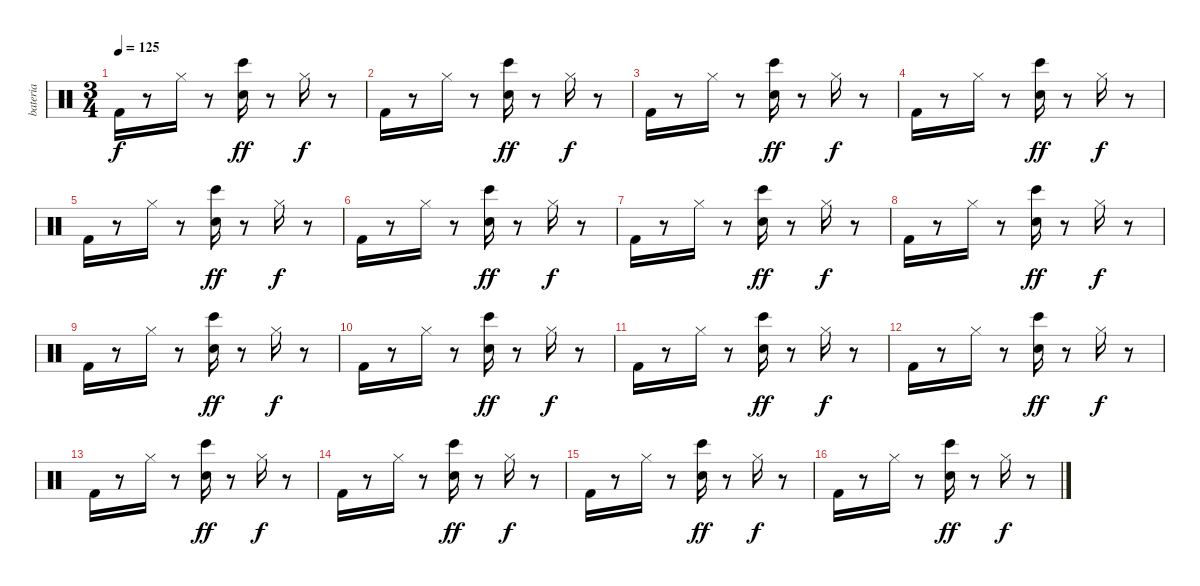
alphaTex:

\track ("bateria" "bateria") {instrument percussion}
\staff {score}
\articulation defaults
\ts (3 4)
\tempo 125
\clef neutral
\ks c "Kick (hit) 2".16{dy f}
r.8 "Hi-Hat (closed)".16 r.8 ("Snare (hit) 2" "Bongo High (hit)").16{dy ff volume 15 balance 8} r.8 "Hi-Hat (closed)".16{dy f} r.8 |
"Kick (hit) 2".16{volume 15 balance 8} r.8 "Hi-Hat (closed)".16 r.8 ("Bongo High (hit)" "Snare (hit) 2").16{dy ff} r.8 "Hi-Hat (closed)".16{dy f volume 15 balance 8} r.8 |
"Kick (hit) 2".16{volume 15 balance 8} r.8 "Hi-Hat (closed)".16 r.8 ("Bongo High (hit)" "Snare (hit) 2").16{dy ff} r.8 "Hi-Hat (closed)".16{dy f volume 15 balance 8} r.8 |
"Kick (hit) 2".16 r.8 "Hi-Hat (closed)".16 r.8 ("Snare (hit) 2" "Bongo High (hit)").16{dy ff volume 15 balance 8} r.8 "Hi-Hat (closed)".16{dy f} r.8 |
"Kick (hit) 2".16{volume 15 balance 8} r.8 "Hi-Hat (closed)".16 r.8 ("Bongo High (hit)" "Snare (hit) 2").16{dy ff} r.8 "Hi-Hat (closed)".16{dy f volume 15 balance 8} r.8 |
"Kick (hit) 2".16{volume 15 balance 8} r.8 "Hi-Hat (closed)".16 r.8 ("Bongo High (hit)" "Snare (hit) 2").16{dy ff} r.8 "Hi-Hat (closed)".16{dy f volume 15 balance 8} r.8 |
"Kick (hit) 2".16 r.8 "Hi-Hat (closed)".16 r.8 ("Snare (hit) 2" "Bongo High (hit)").16{dy ff volume 15 balance 8} r.8 "Hi-Hat (closed)".16{dy f} r.8 |
"Kick (hit) 2".16{volume 15 balance 8} r.8 "Hi-Hat (closed)".16 r.8 ("Bongo High (hit)" "Snare (hit) 2").16{dy ff} r.8 "Hi-Hat (closed)".16{dy f volume 15 balance 8} r.8 |
"Kick (hit) 2".16{volume 15 balance 8} r.8 "Hi-Hat (closed)".16 r.8 ("Bongo High (hit)" "Snare (hit) 2").16{dy ff} r.8 "Hi-Hat (closed)".16{dy f volume 15 balance 8} r.8 |
"Kick (hit) 2".16 r.8 "Hi-Hat (closed)".16 r.8 ("Snare (hit) 2" "Bongo High (hit)").16{dy ff volume 15 balance 8} r.8 "Hi-Hat (closed)".16{dy f} r.8 |
"Kick (hit) 2".16{volume 15 balance 8} r.8 "Hi-Hat (closed)".16 r.8 ("Bongo High (hit)" "Snare (hit) 2").16{dy ff} r.8 "Hi-Hat (closed)".16{dy f volume 15 balance 8} r.8 |
"Kick (hit) 2".16{volume 15 balance 8} r.8 "Hi-Hat (closed)".16 r.8 ("Bongo High (hit)" "Snare (hit) 2").16{dy ff} r.8 "Hi-Hat (closed)".16{dy f volume 15 balance 8} r.8 |
"Kick (hit) 2".16 r.8 "Hi-Hat (closed)".16 r.8 ("Snare (hit) 2" "Bongo High (hit)").16{dy ff volume 15 balance 8} r.8 "Hi-Hat (closed)".16{dy f} r.8 |
"Kick (hit) 2".16{volume 15 balance 8} r.8 "Hi-Hat (closed)".16 r.8 ("Bongo High (hit)" "Snare (hit) 2").16{dy ff} r.8 "Hi-Hat (closed)".16{dy f volume 15 balance 8} r.8 |
"Kick (hit) 2".16 r.8 "Hi-Hat (closed)".16 r.8 ("Snare (hit) 2" "Bongo High (hit)").16{dy ff} r.8 "Hi-Hat (closed)".16{dy f} r.8 |
"Kick (hit) 2".16 r.8 "Hi-Hat (closed)".16 r.8 ("Bongo High (hit)" "Snare (hit) 2").16{dy ff} r.8 "Hi-Hat (closed)".16{dy f} r.8
